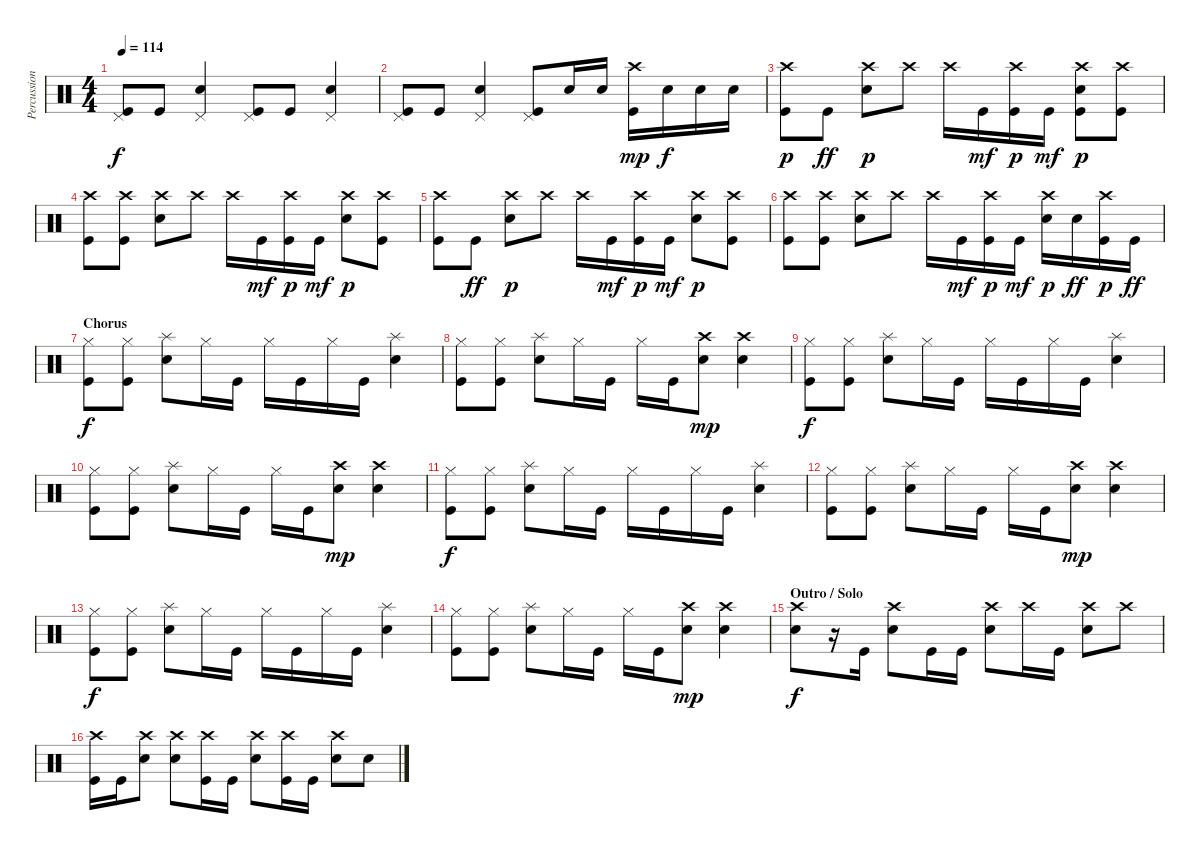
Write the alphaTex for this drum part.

\track ("Percussion" "Percussion") {instrument percussion}
\staff {score}
\articulation defaults
\ts (4 4)
\tempo 114
\clef neutral
\ks c
("Kick (hit)" "Pedal Hi-Hat (hit)").8{dy f} "Kick (hit)".8 ("Electric Snare (hit)" "Pedal Hi-Hat (hit)").4 ("Kick (hit)" "Pedal Hi-Hat (hit)").8 "Kick (hit)".8 ("Electric Snare (hit)" "Pedal Hi-Hat (hit)").4 |
("Kick (hit)" "Pedal Hi-Hat (hit)").8 "Kick (hit)".8 ("Electric Snare (hit)" "Pedal Hi-Hat (hit)").4 ("Kick (hit)" "Pedal Hi-Hat (hit)").8 "Electric Snare (hit)".16 "Electric Snare (hit)".16 ("Kick (hit)" "Crash high (hit)").16{dy mp} "Electric Snare (hit)".16{dy f} "Electric Snare (hit)".16 "Electric Snare (hit)".16 |
("Kick (hit)" "Crash high (hit)").8{dy p} "Kick (hit)".8{dy ff} ("Electric Snare (hit)" "Crash high (hit)").8{dy p} "Crash high (hit)".8 "Crash high (hit)".16 "Kick (hit)".16{dy mf} ("Kick (hit)" "Crash high (hit)").16{dy p} "Kick (hit)".16{dy mf} ("Electric Snare (hit)" "Kick (hit)" "Crash high (hit)").8{dy p} ("Kick (hit)" "Crash high (hit)").8 |
("Kick (hit)" "Crash high (hit)").8 ("Kick (hit)" "Crash high (hit)").8 ("Electric Snare (hit)" "Crash high (hit)").8 "Crash high (hit)".8 "Crash high (hit)".16 "Kick (hit)".16{dy mf} ("Kick (hit)" "Crash high (hit)").16{dy p} "Kick (hit)".16{dy mf} ("Electric Snare (hit)" "Crash high (hit)").8{dy p} ("Kick (hit)" "Crash high (hit)").8 |
("Kick (hit)" "Crash high (hit)").8 "Kick (hit)".8{dy ff} ("Electric Snare (hit)" "Crash high (hit)").8{dy p} "Crash high (hit)".8 "Crash high (hit)".16 "Kick (hit)".16{dy mf} ("Kick (hit)" "Crash high (hit)").16{dy p} "Kick (hit)".16{dy mf} ("Electric Snare (hit)" "Crash high (hit)").8{dy p} ("Kick (hit)" "Crash high (hit)").8 |
("Kick (hit)" "Crash high (hit)").8 ("Kick (hit)" "Crash high (hit)").8 ("Electric Snare (hit)" "Crash high (hit)").8 "Crash high (hit)".8 "Crash high (hit)".16 "Kick (hit)".16{dy mf} ("Kick (hit)" "Crash high (hit)").16{dy p} "Kick (hit)".16{dy mf} ("Electric Snare (hit)" "Crash high (hit)").16{dy p} "Electric Snare (hit)".16{dy ff} ("Kick (hit)" "Crash high (hit)").16{dy p} "Kick (hit)".16{dy ff} |
\section ("" "Chorus")
("Kick (hit)" "Hi-Hat (closed)").8{dy f} ("Kick (hit)" "Hi-Hat (closed)").8 ("Electric Snare (hit)" "Splash (hit)").8 "Hi-Hat (closed)".16 "Kick (hit)".16 "Hi-Hat (closed)".16 "Kick (hit)".16 "Hi-Hat (closed)".16 "Kick (hit)".16 ("Electric Snare (hit)" "Splash (hit)").4 |
("Kick (hit)" "Hi-Hat (closed)").8 ("Kick (hit)" "Hi-Hat (closed)").8 ("Electric Snare (hit)" "Splash (hit)").8 "Hi-Hat (closed)".16 "Kick (hit)".16 "Hi-Hat (closed)".16 "Kick (hit)".16 ("Electric Snare (hit)" "Crash high (hit)").8{dy mp} ("Electric Snare (hit)" "Crash high (hit)").4 |
("Kick (hit)" "Hi-Hat (closed)").8{dy f} ("Kick (hit)" "Hi-Hat (closed)").8 ("Electric Snare (hit)" "Splash (hit)").8 "Hi-Hat (closed)".16 "Kick (hit)".16 "Hi-Hat (closed)".16 "Kick (hit)".16 "Hi-Hat (closed)".16 "Kick (hit)".16 ("Electric Snare (hit)" "Splash (hit)").4 |
("Kick (hit)" "Hi-Hat (closed)").8 ("Kick (hit)" "Hi-Hat (closed)").8 ("Electric Snare (hit)" "Splash (hit)").8 "Hi-Hat (closed)".16 "Kick (hit)".16 "Hi-Hat (closed)".16 "Kick (hit)".16 ("Electric Snare (hit)" "Crash high (hit)").8{dy mp} ("Electric Snare (hit)" "Crash high (hit)").4 |
("Kick (hit)" "Hi-Hat (closed)").8{dy f} ("Kick (hit)" "Hi-Hat (closed)").8 ("Electric Snare (hit)" "Splash (hit)").8 "Hi-Hat (closed)".16 "Kick (hit)".16 "Hi-Hat (closed)".16 "Kick (hit)".16 "Hi-Hat (closed)".16 "Kick (hit)".16 ("Electric Snare (hit)" "Splash (hit)").4 |
("Kick (hit)" "Hi-Hat (closed)").8 ("Kick (hit)" "Hi-Hat (closed)").8 ("Electric Snare (hit)" "Splash (hit)").8 "Hi-Hat (closed)".16 "Kick (hit)".16 "Hi-Hat (closed)".16 "Kick (hit)".16 ("Electric Snare (hit)" "Crash high (hit)").8{dy mp} ("Electric Snare (hit)" "Crash high (hit)").4 |
("Kick (hit)" "Hi-Hat (closed)").8{dy f} ("Kick (hit)" "Hi-Hat (closed)").8 ("Electric Snare (hit)" "Splash (hit)").8 "Hi-Hat (closed)".16 "Kick (hit)".16 "Hi-Hat (closed)".16 "Kick (hit)".16 "Hi-Hat (closed)".16 "Kick (hit)".16 ("Electric Snare (hit)" "Splash (hit)").4 |
("Kick (hit)" "Hi-Hat (closed)").8 ("Kick (hit)" "Hi-Hat (closed)").8 ("Electric Snare (hit)" "Splash (hit)").8 "Hi-Hat (closed)".16 "Kick (hit)".16 "Hi-Hat (closed)".16 "Kick (hit)".16 ("Electric Snare (hit)" "Crash high (hit)").8{dy mp} ("Electric Snare (hit)" "Crash high (hit)").4 |
\section ("" "Outro / Solo")
("Electric Snare (hit)" "Crash high (hit)").8{dy f} r.16 "Kick (hit)".16 ("Electric Snare (hit)" "Crash high (hit)").8 "Kick (hit)".16 "Kick (hit)".16 ("Electric Snare (hit)" "Crash high (hit)").8 "Crash high (hit)".16 "Kick (hit)".16 ("Electric Snare (hit)" "Crash high (hit)").8 "Crash high (hit)".8 |
("Kick (hit)" "Crash high (hit)").16 "Kick (hit)".16 ("Electric Snare (hit)" "Crash high (hit)").8 ("Electric Snare (hit)" "Crash high (hit)").8 ("Kick (hit)" "Crash high (hit)").16 "Kick (hit)".16 ("Electric Snare (hit)" "Crash high (hit)").8 ("Kick (hit)" "Crash high (hit)").16 "Kick (hit)".16 ("Electric Snare (hit)" "Crash high (hit)").8 "Electric Snare (hit)".8
